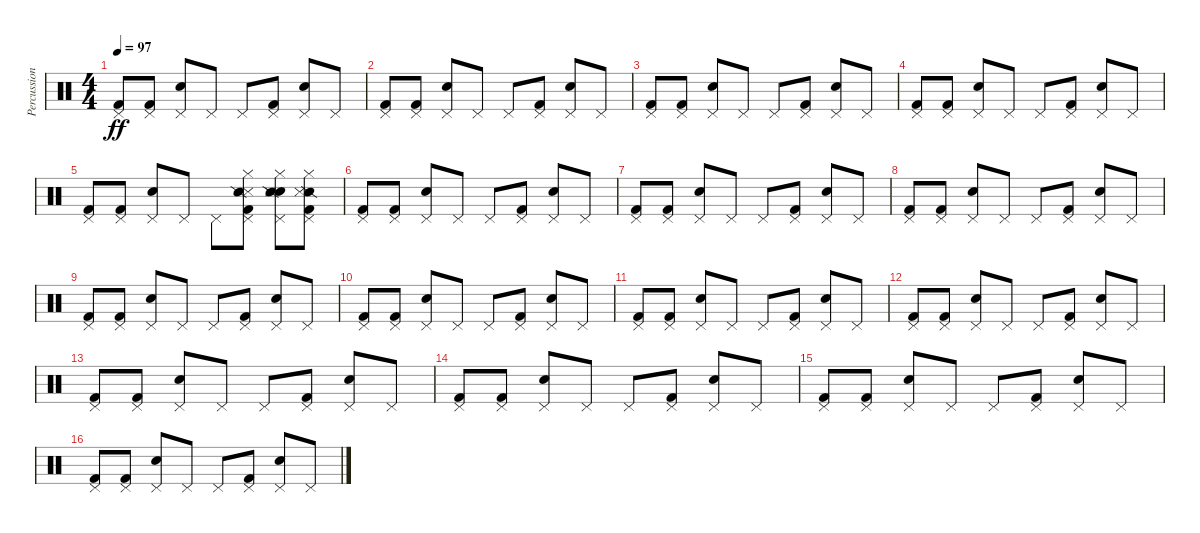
\track ("Percussion" "Percussion") {instrument percussion}
\staff {score}
\articulation defaults
\ts (4 4)
\tempo 97
\clef neutral
\ks c
("Kick (hit) 2" "Pedal Hi-Hat (hit)").8{dy ff} ("Kick (hit) 2" "Pedal Hi-Hat (hit)").8 ("Electric Snare (hit)" "Pedal Hi-Hat (hit)").8 "Pedal Hi-Hat (hit)".8 "Pedal Hi-Hat (hit)".8 ("Kick (hit) 2" "Pedal Hi-Hat (hit)").8 ("Electric Snare (hit)" "Pedal Hi-Hat (hit)").8 "Pedal Hi-Hat (hit)".8 |
("Pedal Hi-Hat (hit)" "Kick (hit) 2").8 ("Kick (hit) 2" "Pedal Hi-Hat (hit)").8 ("Electric Snare (hit)" "Pedal Hi-Hat (hit)").8 "Pedal Hi-Hat (hit)".8 "Pedal Hi-Hat (hit)".8 ("Kick (hit) 2" "Pedal Hi-Hat (hit)").8 ("Electric Snare (hit)" "Pedal Hi-Hat (hit)").8 "Pedal Hi-Hat (hit)".8 |
("Pedal Hi-Hat (hit)" "Kick (hit) 2").8 ("Kick (hit) 2" "Pedal Hi-Hat (hit)").8 ("Electric Snare (hit)" "Pedal Hi-Hat (hit)").8 "Pedal Hi-Hat (hit)".8 "Pedal Hi-Hat (hit)".8 ("Kick (hit) 2" "Pedal Hi-Hat (hit)").8 ("Electric Snare (hit)" "Pedal Hi-Hat (hit)").8 "Pedal Hi-Hat (hit)".8 |
("Pedal Hi-Hat (hit)" "Kick (hit) 2").8 ("Kick (hit) 2" "Pedal Hi-Hat (hit)").8 ("Electric Snare (hit)" "Pedal Hi-Hat (hit)").8 "Pedal Hi-Hat (hit)".8 "Pedal Hi-Hat (hit)".8 ("Kick (hit) 2" "Pedal Hi-Hat (hit)").8 ("Electric Snare (hit)" "Pedal Hi-Hat (hit)").8 "Pedal Hi-Hat (hit)".8 |
("Pedal Hi-Hat (hit)" "Kick (hit) 2").8 ("Kick (hit) 2" "Pedal Hi-Hat (hit)").8 ("Electric Snare (hit)" "Pedal Hi-Hat (hit)").8 "Pedal Hi-Hat (hit)".8 "Pedal Hi-Hat (hit)".8 ("Snare (side stick) 3" "Snare (side stick) 2" "Hi-Hat (closed)" "Pedal Hi-Hat (hit)" "Kick (hit) 2").8 ("Electric Snare (hit)" "Pedal Hi-Hat (hit)" "Hi-Hat (closed)" "Snare (side stick) 2" "Snare (side stick) 3").8 ("Pedal Hi-Hat (hit)" "Hi-Hat (closed)" "Snare (side stick) 2" "Kick (hit) 2" "Snare (side stick) 3").8 |
("Pedal Hi-Hat (hit)" "Kick (hit) 2").8 ("Kick (hit) 2" "Pedal Hi-Hat (hit)").8 ("Electric Snare (hit)" "Pedal Hi-Hat (hit)").8 "Pedal Hi-Hat (hit)".8 "Pedal Hi-Hat (hit)".8 ("Kick (hit) 2" "Pedal Hi-Hat (hit)").8 ("Electric Snare (hit)" "Pedal Hi-Hat (hit)").8 "Pedal Hi-Hat (hit)".8 |
("Pedal Hi-Hat (hit)" "Kick (hit) 2").8 ("Kick (hit) 2" "Pedal Hi-Hat (hit)").8 ("Electric Snare (hit)" "Pedal Hi-Hat (hit)").8 "Pedal Hi-Hat (hit)".8 "Pedal Hi-Hat (hit)".8 ("Kick (hit) 2" "Pedal Hi-Hat (hit)").8 ("Electric Snare (hit)" "Pedal Hi-Hat (hit)").8 "Pedal Hi-Hat (hit)".8 |
("Pedal Hi-Hat (hit)" "Kick (hit) 2").8 ("Kick (hit) 2" "Pedal Hi-Hat (hit)").8 ("Electric Snare (hit)" "Pedal Hi-Hat (hit)").8 "Pedal Hi-Hat (hit)".8 "Pedal Hi-Hat (hit)".8 ("Kick (hit) 2" "Pedal Hi-Hat (hit)").8 ("Electric Snare (hit)" "Pedal Hi-Hat (hit)").8 "Pedal Hi-Hat (hit)".8 |
("Kick (hit) 2" "Pedal Hi-Hat (hit)").8 ("Kick (hit) 2" "Pedal Hi-Hat (hit)").8 ("Electric Snare (hit)" "Pedal Hi-Hat (hit)").8 "Pedal Hi-Hat (hit)".8 "Pedal Hi-Hat (hit)".8 ("Kick (hit) 2" "Pedal Hi-Hat (hit)").8 ("Electric Snare (hit)" "Pedal Hi-Hat (hit)").8 "Pedal Hi-Hat (hit)".8 |
("Pedal Hi-Hat (hit)" "Kick (hit) 2").8 ("Kick (hit) 2" "Pedal Hi-Hat (hit)").8 ("Electric Snare (hit)" "Pedal Hi-Hat (hit)").8 "Pedal Hi-Hat (hit)".8 "Pedal Hi-Hat (hit)".8 ("Kick (hit) 2" "Pedal Hi-Hat (hit)").8 ("Electric Snare (hit)" "Pedal Hi-Hat (hit)").8 "Pedal Hi-Hat (hit)".8 |
("Pedal Hi-Hat (hit)" "Kick (hit) 2").8 ("Kick (hit) 2" "Pedal Hi-Hat (hit)").8 ("Electric Snare (hit)" "Pedal Hi-Hat (hit)").8 "Pedal Hi-Hat (hit)".8 "Pedal Hi-Hat (hit)".8 ("Kick (hit) 2" "Pedal Hi-Hat (hit)").8 ("Electric Snare (hit)" "Pedal Hi-Hat (hit)").8 "Pedal Hi-Hat (hit)".8 |
("Pedal Hi-Hat (hit)" "Kick (hit) 2").8 ("Kick (hit) 2" "Pedal Hi-Hat (hit)").8 ("Electric Snare (hit)" "Pedal Hi-Hat (hit)").8 "Pedal Hi-Hat (hit)".8 "Pedal Hi-Hat (hit)".8 ("Kick (hit) 2" "Pedal Hi-Hat (hit)").8 ("Electric Snare (hit)" "Pedal Hi-Hat (hit)").8 "Pedal Hi-Hat (hit)".8 |
("Pedal Hi-Hat (hit)" "Kick (hit) 2").8 ("Kick (hit) 2" "Pedal Hi-Hat (hit)").8 ("Electric Snare (hit)" "Pedal Hi-Hat (hit)").8 "Pedal Hi-Hat (hit)".8 "Pedal Hi-Hat (hit)".8 ("Kick (hit) 2" "Pedal Hi-Hat (hit)").8 ("Electric Snare (hit)" "Pedal Hi-Hat (hit)").8 "Pedal Hi-Hat (hit)".8 |
("Pedal Hi-Hat (hit)" "Kick (hit) 2").8 ("Kick (hit) 2" "Pedal Hi-Hat (hit)").8 ("Electric Snare (hit)" "Pedal Hi-Hat (hit)").8 "Pedal Hi-Hat (hit)".8 "Pedal Hi-Hat (hit)".8 ("Kick (hit) 2" "Pedal Hi-Hat (hit)").8 ("Electric Snare (hit)" "Pedal Hi-Hat (hit)").8 "Pedal Hi-Hat (hit)".8 |
("Pedal Hi-Hat (hit)" "Kick (hit) 2").8 ("Kick (hit) 2" "Pedal Hi-Hat (hit)").8 ("Electric Snare (hit)" "Pedal Hi-Hat (hit)").8 "Pedal Hi-Hat (hit)".8 "Pedal Hi-Hat (hit)".8 ("Kick (hit) 2" "Pedal Hi-Hat (hit)").8 ("Electric Snare (hit)" "Pedal Hi-Hat (hit)").8 "Pedal Hi-Hat (hit)".8 |
("Pedal Hi-Hat (hit)" "Kick (hit) 2").8 ("Kick (hit) 2" "Pedal Hi-Hat (hit)").8 ("Electric Snare (hit)" "Pedal Hi-Hat (hit)").8 "Pedal Hi-Hat (hit)".8 "Pedal Hi-Hat (hit)".8 ("Kick (hit) 2" "Pedal Hi-Hat (hit)").8 ("Electric Snare (hit)" "Pedal Hi-Hat (hit)").8 "Pedal Hi-Hat (hit)".8
